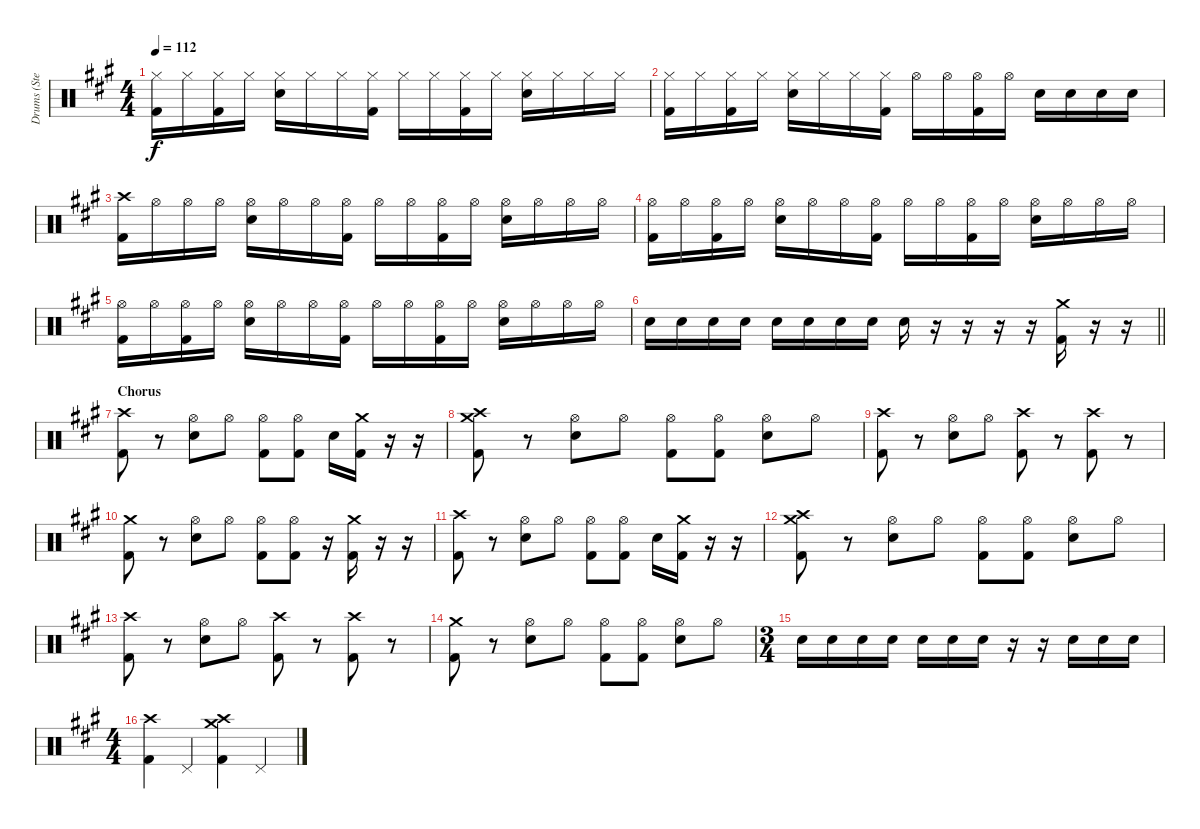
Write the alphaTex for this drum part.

\track ("Drums (Steven)" "Drums (Ste") {instrument percussion}
\staff {score}
\articulation defaults
\ts (4 4)
\tempo 112
\clef neutral
\ks f#minor
("Hi-Hat (closed)" "Kick (hit) 2").16{dy f} "Hi-Hat (closed)".16 ("Hi-Hat (closed)" "Kick (hit) 2").16 "Hi-Hat (closed)".16 ("Hi-Hat (closed)" "Snare (hit) 2").16 "Hi-Hat (closed)".16 "Hi-Hat (closed)".16 ("Hi-Hat (closed)" "Kick (hit) 2").16 "Hi-Hat (closed)".16 "Hi-Hat (closed)".16 ("Hi-Hat (closed)" "Kick (hit) 2").16 "Hi-Hat (closed)".16 ("Hi-Hat (closed)" "Snare (hit) 2").16 "Hi-Hat (closed)".16 "Hi-Hat (closed)".16 "Hi-Hat (closed)".16 |
("Hi-Hat (closed)" "Kick (hit) 2").16 "Hi-Hat (closed)".16 ("Hi-Hat (closed)" "Kick (hit) 2").16 "Hi-Hat (closed)".16 ("Hi-Hat (closed)" "Snare (hit) 2").16 "Hi-Hat (closed)".16 "Hi-Hat (closed)".16 ("Hi-Hat (closed)" "Kick (hit) 2").16 "Hi-Hat (open)".16 "Hi-Hat (open)".16 ("Hi-Hat (open)" "Kick (hit) 2").16 "Hi-Hat (open)".16 "Snare (hit) 2".16 "Snare (hit) 2".16 "Snare (hit) 2".16 "Snare (hit) 2".16 |
("Crash high (hit)" "Kick (hit) 2").16 "Hi-Hat (open)".16 "Hi-Hat (open)".16 "Hi-Hat (open)".16 ("Hi-Hat (open)" "Snare (hit) 2").16 "Hi-Hat (open)".16 "Hi-Hat (open)".16 ("Hi-Hat (open)" "Kick (hit) 2").16 "Hi-Hat (open)".16 "Hi-Hat (open)".16 ("Hi-Hat (open)" "Kick (hit) 2").16 "Hi-Hat (open)".16 ("Hi-Hat (open)" "Snare (hit) 2").16 "Hi-Hat (open)".16 "Hi-Hat (open)".16 "Hi-Hat (open)".16 |
("Hi-Hat (open)" "Kick (hit) 2").16 "Hi-Hat (open)".16 ("Hi-Hat (open)" "Kick (hit) 2").16 "Hi-Hat (open)".16 ("Hi-Hat (open)" "Snare (hit) 2").16 "Hi-Hat (open)".16 "Hi-Hat (open)".16 ("Hi-Hat (open)" "Kick (hit) 2").16 "Hi-Hat (open)".16 "Hi-Hat (open)".16 ("Hi-Hat (open)" "Kick (hit) 2").16 "Hi-Hat (open)".16 ("Hi-Hat (open)" "Snare (hit) 2").16 "Hi-Hat (open)".16 "Hi-Hat (open)".16 "Hi-Hat (open)".16 |
("Hi-Hat (open)" "Kick (hit) 2").16 "Hi-Hat (open)".16 ("Hi-Hat (open)" "Kick (hit) 2").16 "Hi-Hat (open)".16 ("Hi-Hat (open)" "Snare (hit) 2").16 "Hi-Hat (open)".16 "Hi-Hat (open)".16 ("Hi-Hat (open)" "Kick (hit) 2").16 "Hi-Hat (open)".16 "Hi-Hat (open)".16 ("Hi-Hat (open)" "Kick (hit) 2").16 "Hi-Hat (open)".16 ("Hi-Hat (open)" "Snare (hit) 2").16 "Hi-Hat (open)".16 "Hi-Hat (open)".16 "Hi-Hat (open)".16 |
\barLineRight lightlight "Snare (hit) 2".16 "Snare (hit) 2".16 "Snare (hit) 2".16 "Snare (hit) 2".16 "Snare (hit) 2".16 "Snare (hit) 2".16 "Snare (hit) 2".16 "Snare (hit) 2".16 "Snare (hit) 2".16
r.16 r.16 r.16 r.16 ("Crash medium (hit)" "Kick (hit) 2").16 r.16 r.16 |
\section ("" "Chorus")
("Crash high (hit)" "Kick (hit) 2").8 r.8 ("Hi-Hat (open)" "Snare (hit) 2").8 "Hi-Hat (open)".8 ("Hi-Hat (open)" "Kick (hit) 2").8 ("Hi-Hat (open)" "Kick (hit) 2").8 "Snare (hit) 2".16 ("Crash medium (hit)" "Kick (hit) 2").16 r.16 r.16 |
("Crash high (hit)" "Crash medium (hit)" "Kick (hit) 2").8 r.8 ("Hi-Hat (open)" "Snare (hit) 2").8 "Hi-Hat (open)".8 ("Hi-Hat (open)" "Kick (hit) 2").8 ("Hi-Hat (open)" "Kick (hit) 2").8 ("Hi-Hat (open)" "Snare (hit) 2").8 "Hi-Hat (open)".8 |
("Crash high (hit)" "Kick (hit) 2").8 r.8 ("Hi-Hat (open)" "Snare (hit) 2").8 "Hi-Hat (open)".8 ("Crash high (hit)" "Kick (hit) 2").8 r.8 ("Crash high (hit)" "Kick (hit) 2").8 r.8 |
("Crash medium (hit)" "Kick (hit) 2").8 r.8 ("Hi-Hat (open)" "Snare (hit) 2").8 "Hi-Hat (open)".8 ("Hi-Hat (open)" "Kick (hit) 2").8 ("Hi-Hat (open)" "Kick (hit) 2").8 r.16 ("Crash medium (hit)" "Kick (hit) 2").16 r.16 r.16 |
("Crash high (hit)" "Kick (hit) 2").8 r.8 ("Hi-Hat (open)" "Snare (hit) 2").8 "Hi-Hat (open)".8 ("Hi-Hat (open)" "Kick (hit) 2").8 ("Hi-Hat (open)" "Kick (hit) 2").8 "Snare (hit) 2".16 ("Crash medium (hit)" "Kick (hit) 2").16 r.16 r.16 |
("Crash high (hit)" "Crash medium (hit)" "Kick (hit) 2").8 r.8 ("Hi-Hat (open)" "Snare (hit) 2").8 "Hi-Hat (open)".8 ("Hi-Hat (open)" "Kick (hit) 2").8 ("Hi-Hat (open)" "Kick (hit) 2").8 ("Hi-Hat (open)" "Snare (hit) 2").8 "Hi-Hat (open)".8 |
("Crash high (hit)" "Kick (hit) 2").8 r.8 ("Hi-Hat (open)" "Snare (hit) 2").8 "Hi-Hat (open)".8 ("Crash high (hit)" "Kick (hit) 2").8 r.8 ("Crash high (hit)" "Kick (hit) 2").8 r.8 |
("Crash medium (hit)" "Kick (hit) 2").8 r.8 ("Hi-Hat (open)" "Snare (hit) 2").8 "Hi-Hat (open)".8 ("Hi-Hat (open)" "Kick (hit) 2").8 ("Hi-Hat (open)" "Kick (hit) 2").8 ("Hi-Hat (open)" "Snare (hit) 2").8 "Hi-Hat (open)".8 |
\ts (3 4)
"Snare (hit) 2".16 "Snare (hit) 2".16 "Snare (hit) 2".16 "Snare (hit) 2".16 "Snare (hit) 2".16 "Snare (hit) 2".16 "Snare (hit) 2".16 r.16 r.16 "Snare (hit) 2".16 "Snare (hit) 2".16 "Snare (hit) 2".16 |
\ts (4 4)
("Crash high (hit)" "Kick (hit) 2").4 "Pedal Hi-Hat (hit)".4 ("Crash high (hit)" "Crash medium (hit)" "Kick (hit) 2").4 "Pedal Hi-Hat (hit)".4
